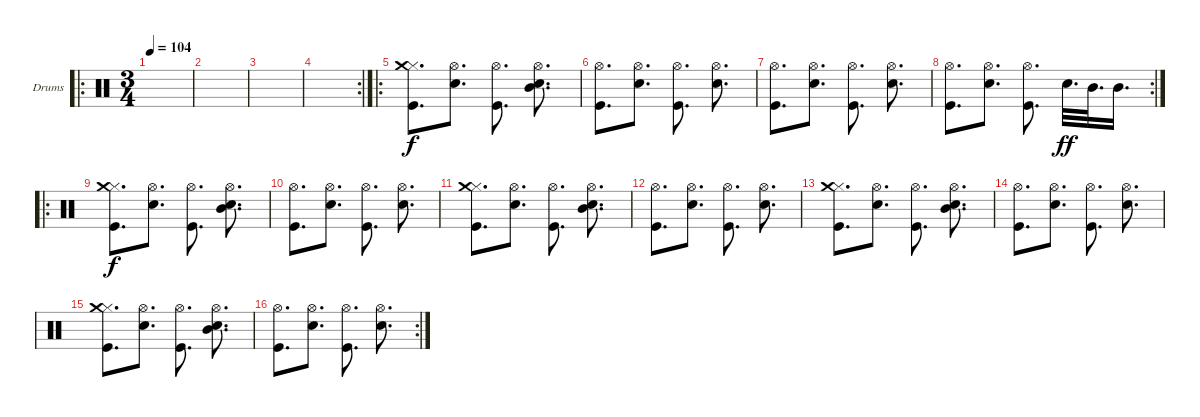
\bracketExtendMode groupsimilarinstruments
\firstSystemTrackNameOrientation horizontal
\otherSystemsTrackNameOrientation horizontal
\track ("Drumkit" "Drums") {instrument percussion}
\staff {score}
\articulation defaults
\ro
\ts (3 4)
\tempo 104
\clef neutral
\ks c
|
|
|
\rc 2
|
\ro
("Kick (hit)" "Hi-Hat (closed)" "Crash medium (hit)").8{d} ("Snare (hit) 2" "Hi-Hat (open)").8{d} ("Kick (hit)" "Hi-Hat (open)").8{d} ("Snare (hit) 2" "Hi-Hat (open)" "Mid Tom (hit)").8{d} |
("Kick (hit)" "Hi-Hat (open)").8{d} ("Snare (hit) 2" "Hi-Hat (open)").8{d} ("Kick (hit)" "Hi-Hat (open)").8{d} ("Snare (hit) 2" "Hi-Hat (open)").8{d} |
("Kick (hit)" "Hi-Hat (open)").8{d} ("Snare (hit) 2" "Hi-Hat (open)").8{d} ("Kick (hit)" "Hi-Hat (open)").8{d} ("Snare (hit) 2" "Hi-Hat (open)").8{d} |
\rc 2
("Kick (hit)" "Hi-Hat (open)").8{d dy f} ("Snare (hit) 2" "Hi-Hat (open)").8{d} ("Kick (hit)" "Hi-Hat (open)").8{d} "Snare (hit) 2".32{d dy ff} "Mid Tom (hit)".32{d} "Mid Tom (hit)".16{d} |
\ro
("Kick (hit)" "Hi-Hat (closed)" "Crash medium (hit)").8{d dy f} ("Snare (hit) 2" "Hi-Hat (open)").8{d} ("Kick (hit)" "Hi-Hat (open)").8{d} ("Snare (hit) 2" "Hi-Hat (open)" "Mid Tom (hit)").8{d} |
("Kick (hit)" "Hi-Hat (open)").8{d} ("Snare (hit) 2" "Hi-Hat (open)").8{d} ("Kick (hit)" "Hi-Hat (open)").8{d} ("Snare (hit) 2" "Hi-Hat (open)").8{d} |
("Kick (hit)" "Hi-Hat (closed)" "Crash medium (hit)").8{d} ("Snare (hit) 2" "Hi-Hat (open)").8{d} ("Kick (hit)" "Hi-Hat (open)").8{d} ("Snare (hit) 2" "Hi-Hat (open)" "Mid Tom (hit)").8{d} |
("Kick (hit)" "Hi-Hat (open)").8{d} ("Snare (hit) 2" "Hi-Hat (open)").8{d} ("Kick (hit)" "Hi-Hat (open)").8{d} ("Snare (hit) 2" "Hi-Hat (open)").8{d} |
("Kick (hit)" "Hi-Hat (closed)" "Crash medium (hit)").8{d} ("Snare (hit) 2" "Hi-Hat (open)").8{d} ("Kick (hit)" "Hi-Hat (open)").8{d} ("Snare (hit) 2" "Hi-Hat (open)" "Mid Tom (hit)").8{d} |
("Kick (hit)" "Hi-Hat (open)").8{d} ("Snare (hit) 2" "Hi-Hat (open)").8{d} ("Kick (hit)" "Hi-Hat (open)").8{d} ("Snare (hit) 2" "Hi-Hat (open)").8{d} |
("Kick (hit)" "Hi-Hat (closed)" "Crash medium (hit)").8{d} ("Snare (hit) 2" "Hi-Hat (open)").8{d} ("Kick (hit)" "Hi-Hat (open)").8{d} ("Snare (hit) 2" "Hi-Hat (open)" "Mid Tom (hit)").8{d} |
\rc 2
("Kick (hit)" "Hi-Hat (open)").8{d} ("Snare (hit) 2" "Hi-Hat (open)").8{d} ("Kick (hit)" "Hi-Hat (open)").8{d} ("Snare (hit) 2" "Hi-Hat (open)").8{d}
